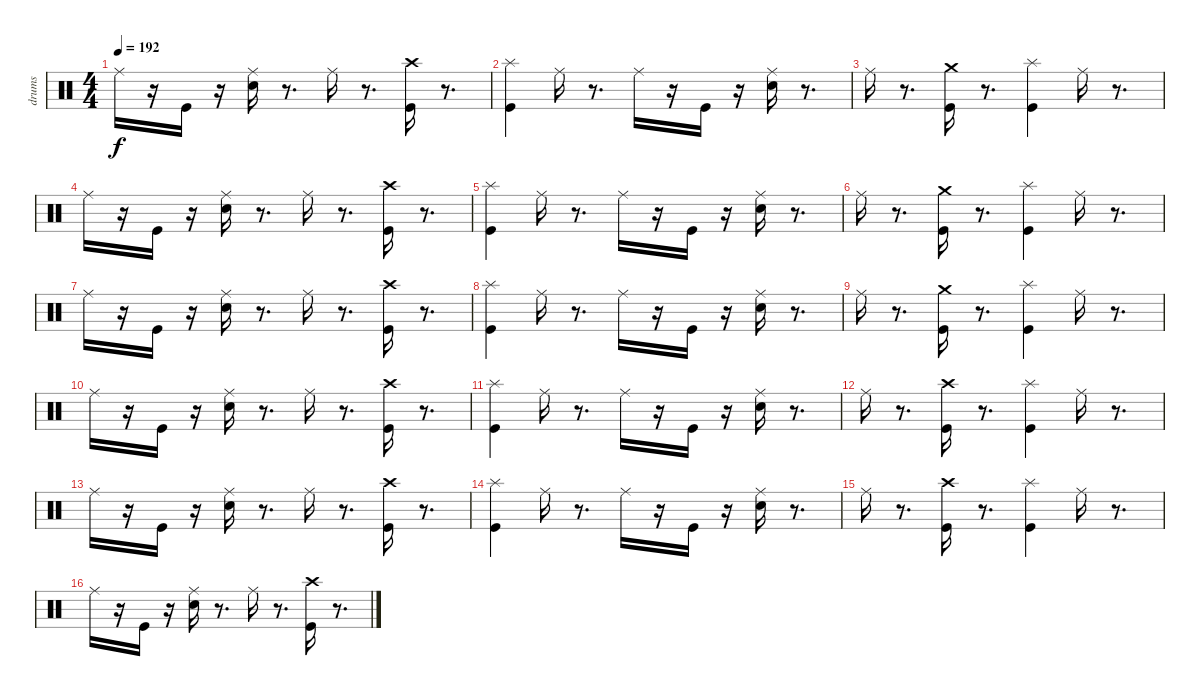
\track ("drums" "drums") {instrument percussion}
\staff {score}
\articulation defaults
\ts (4 4)
\tempo 192
\clef neutral
\ks c "Ride (middle)".16{dy f}
r.16 "Kick (hit)".16 r.16 ("Ride (middle)" "Snare (hit) 2").16 r.8{d} "Ride (middle)".16 r.8{d} ("Kick (hit)" "Crash high (hit)").16 r.8{d} |
("Splash (hit)" "Kick (hit)").4 "Ride (middle)".16 r.8{d} "Ride (middle)".16 r.16 "Kick (hit)".16 r.16 ("Ride (middle)" "Snare (hit) 2").16 r.8{d} |
"Ride (middle)".16 r.8{d} ("Kick (hit)" "Crash medium (hit)").16 r.8{d} ("Splash (hit)" "Kick (hit)").4 "Ride (middle)".16 r.8{d} |
"Ride (middle)".16 r.16 "Kick (hit)".16 r.16 ("Ride (middle)" "Snare (hit) 2").16 r.8{d} "Ride (middle)".16 r.8{d} ("Kick (hit)" "Crash high (hit)").16 r.8{d} |
("Splash (hit)" "Kick (hit)").4 "Ride (middle)".16 r.8{d} "Ride (middle)".16 r.16 "Kick (hit)".16 r.16 ("Ride (middle)" "Snare (hit) 2").16 r.8{d} |
"Ride (middle)".16 r.8{d} ("Kick (hit)" "Crash medium (hit)").16 r.8{d} ("Splash (hit)" "Kick (hit)").4 "Ride (middle)".16 r.8{d} |
"Ride (middle)".16 r.16 "Kick (hit)".16 r.16 ("Ride (middle)" "Snare (hit) 2").16 r.8{d} "Ride (middle)".16 r.8{d} ("Kick (hit)" "Crash high (hit)").16 r.8{d} |
("Splash (hit)" "Kick (hit)").4 "Ride (middle)".16 r.8{d} "Ride (middle)".16 r.16 "Kick (hit)".16 r.16 ("Ride (middle)" "Snare (hit) 2").16 r.8{d} |
"Ride (middle)".16 r.8{d} ("Kick (hit)" "Crash medium (hit)").16 r.8{d} ("Splash (hit)" "Kick (hit)").4 "Ride (middle)".16 r.8{d} |
"Ride (middle)".16 r.16 "Kick (hit)".16 r.16 ("Ride (middle)" "Snare (hit) 2").16 r.8{d} "Ride (middle)".16 r.8{d} ("Kick (hit)" "Crash high (hit)").16 r.8{d} |
("Splash (hit)" "Kick (hit)").4 "Ride (middle)".16 r.8{d} "Ride (middle)".16 r.16 "Kick (hit)".16 r.16 ("Ride (middle)" "Snare (hit) 2").16 r.8{d} |
"Ride (middle)".16 r.8{d} ("Kick (hit)" "Crash high (hit)").16 r.8{d} ("Splash (hit)" "Kick (hit)").4 "Ride (middle)".16 r.8{d} |
"Ride (middle)".16 r.16 "Kick (hit)".16 r.16 ("Ride (middle)" "Snare (hit) 2").16 r.8{d} "Ride (middle)".16 r.8{d} ("Kick (hit)" "Crash high (hit)").16 r.8{d} |
("Splash (hit)" "Kick (hit)").4 "Ride (middle)".16 r.8{d} "Ride (middle)".16 r.16 "Kick (hit)".16 r.16 ("Ride (middle)" "Snare (hit) 2").16 r.8{d} |
"Ride (middle)".16 r.8{d} ("Kick (hit)" "Crash high (hit)").16 r.8{d} ("Splash (hit)" "Kick (hit)").4 "Ride (middle)".16 r.8{d} |
"Ride (middle)".16 r.16 "Kick (hit)".16 r.16 ("Ride (middle)" "Snare (hit) 2").16 r.8{d} "Ride (middle)".16 r.8{d} ("Kick (hit)" "Crash high (hit)").16 r.8{d}
